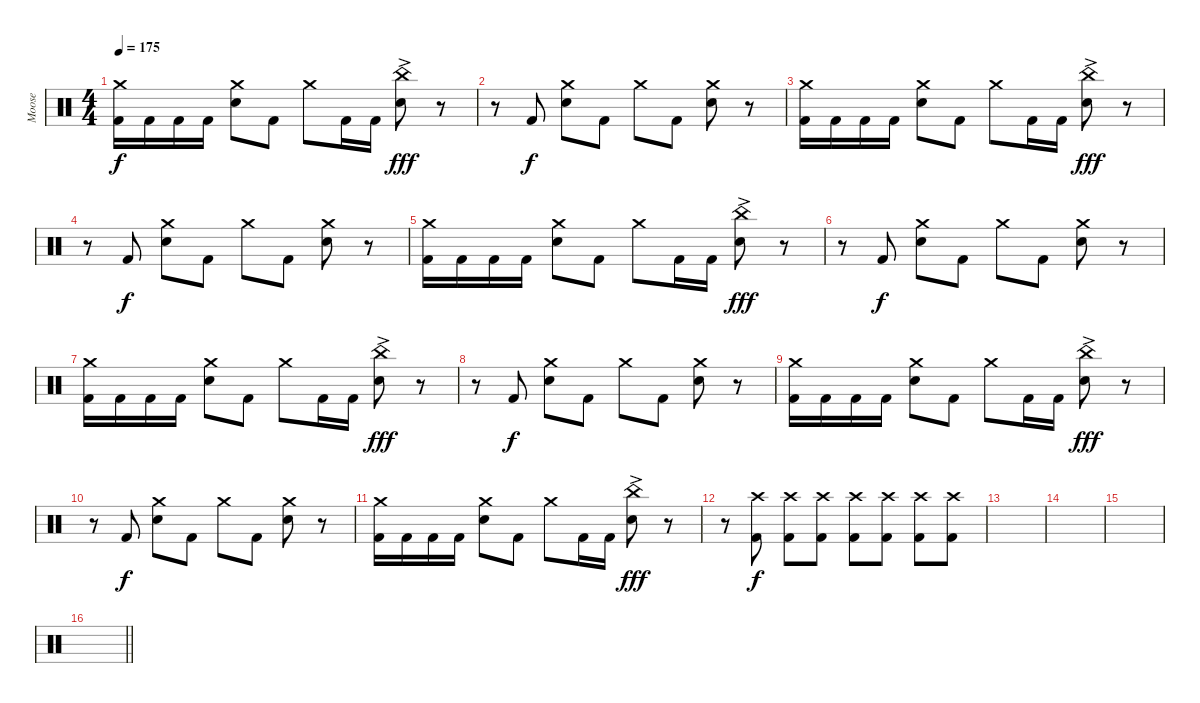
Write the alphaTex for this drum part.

\track ("Moose" "Moose") {instrument percussion}
\staff {score}
\articulation defaults
\ts (4 4)
\tempo 175
\clef neutral
\ks c
("Crash medium (hit)" "Kick (hit) 2").16{dy f} "Kick (hit) 2".16 "Kick (hit) 2".16 "Kick (hit) 2".16 ("Crash medium (hit)" "Electric Snare (hit)").8 "Kick (hit) 2".8 "Crash medium (hit)".8 "Kick (hit) 2".16 "Kick (hit) 2".16 ("China (hit)"{ac} "Electric Snare (hit)").8{dy fff} r.8 |
r.8 "Kick (hit) 2".8{dy f} ("Crash medium (hit)" "Electric Snare (hit)").8 "Kick (hit) 2".8 "Crash medium (hit)".8 "Kick (hit) 2".8 ("Crash medium (hit)" "Electric Snare (hit)").8 r.8 |
("Crash medium (hit)" "Kick (hit) 2").16 "Kick (hit) 2".16 "Kick (hit) 2".16 "Kick (hit) 2".16 ("Crash medium (hit)" "Electric Snare (hit)").8 "Kick (hit) 2".8 "Crash medium (hit)".8 "Kick (hit) 2".16 "Kick (hit) 2".16 ("China (hit)"{ac} "Electric Snare (hit)").8{dy fff} r.8 |
r.8 "Kick (hit) 2".8{dy f} ("Crash medium (hit)" "Electric Snare (hit)").8 "Kick (hit) 2".8 "Crash medium (hit)".8 "Kick (hit) 2".8 ("Crash medium (hit)" "Electric Snare (hit)").8 r.8 |
("Crash medium (hit)" "Kick (hit) 2").16 "Kick (hit) 2".16 "Kick (hit) 2".16 "Kick (hit) 2".16 ("Crash medium (hit)" "Electric Snare (hit)").8 "Kick (hit) 2".8 "Crash medium (hit)".8 "Kick (hit) 2".16 "Kick (hit) 2".16 ("China (hit)"{ac} "Electric Snare (hit)").8{dy fff} r.8 |
r.8 "Kick (hit) 2".8{dy f} ("Crash medium (hit)" "Electric Snare (hit)").8 "Kick (hit) 2".8 "Crash medium (hit)".8 "Kick (hit) 2".8 ("Crash medium (hit)" "Electric Snare (hit)").8 r.8 |
("Crash medium (hit)" "Kick (hit) 2").16 "Kick (hit) 2".16 "Kick (hit) 2".16 "Kick (hit) 2".16 ("Crash medium (hit)" "Electric Snare (hit)").8 "Kick (hit) 2".8 "Crash medium (hit)".8 "Kick (hit) 2".16 "Kick (hit) 2".16 ("China (hit)"{ac} "Electric Snare (hit)").8{dy fff} r.8 |
r.8 "Kick (hit) 2".8{dy f} ("Crash medium (hit)" "Electric Snare (hit)").8 "Kick (hit) 2".8 "Crash medium (hit)".8 "Kick (hit) 2".8 ("Crash medium (hit)" "Electric Snare (hit)").8 r.8 |
("Crash medium (hit)" "Kick (hit) 2").16 "Kick (hit) 2".16 "Kick (hit) 2".16 "Kick (hit) 2".16 ("Crash medium (hit)" "Electric Snare (hit)").8 "Kick (hit) 2".8 "Crash medium (hit)".8 "Kick (hit) 2".16 "Kick (hit) 2".16 ("China (hit)"{ac} "Electric Snare (hit)").8{dy fff} r.8 |
r.8 "Kick (hit) 2".8{dy f} ("Crash medium (hit)" "Electric Snare (hit)").8 "Kick (hit) 2".8 "Crash medium (hit)".8 "Kick (hit) 2".8 ("Crash medium (hit)" "Electric Snare (hit)").8 r.8 |
("Crash medium (hit)" "Kick (hit) 2").16 "Kick (hit) 2".16 "Kick (hit) 2".16 "Kick (hit) 2".16 ("Crash medium (hit)" "Electric Snare (hit)").8 "Kick (hit) 2".8 "Crash medium (hit)".8 "Kick (hit) 2".16 "Kick (hit) 2".16 ("China (hit)"{ac} "Electric Snare (hit)").8{dy fff} r.8 |
r.8 ("Crash high (hit)" "Kick (hit) 2").8{dy f} ("Crash high (hit)" "Kick (hit) 2").8 ("Crash high (hit)" "Kick (hit) 2").8 ("Crash high (hit)" "Kick (hit) 2").8 ("Crash high (hit)" "Kick (hit) 2").8 ("Crash high (hit)" "Kick (hit) 2").8 ("Crash high (hit)" "Kick (hit) 2").8 |
|
|
|
\barLineRight lightlight
